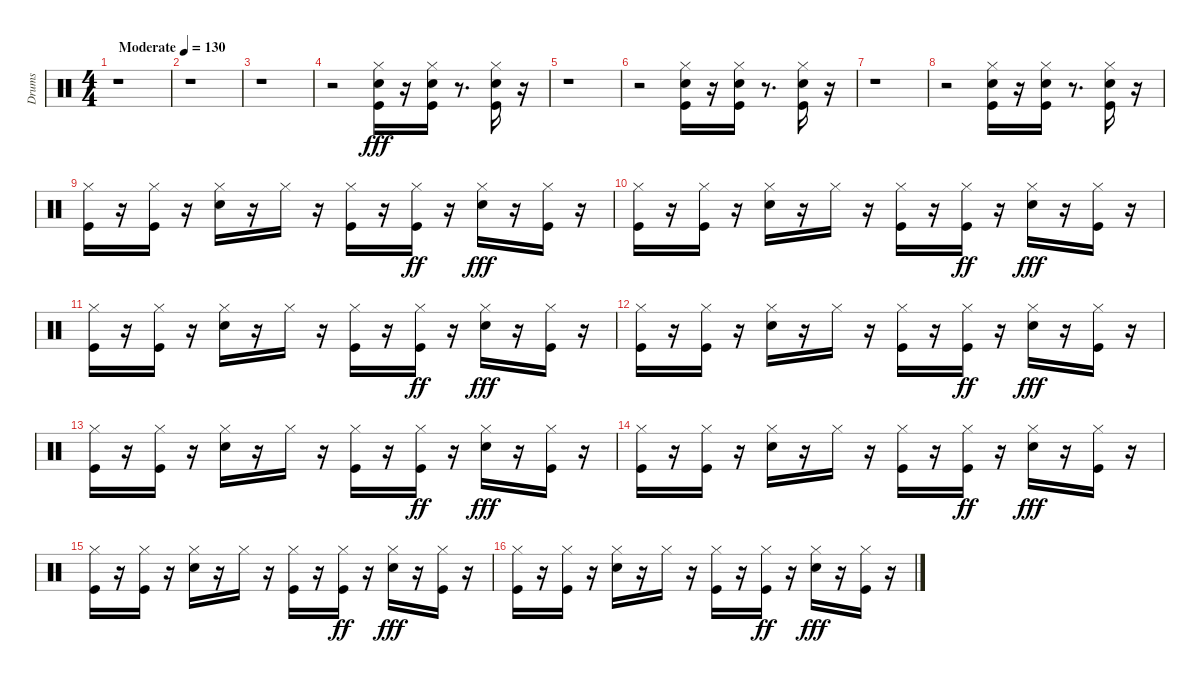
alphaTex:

\track ("Drums" "Drums") {instrument percussion}
\staff {score}
\articulation defaults
\ts (4 4)
\tempo (130 "Moderate")
\clef neutral
\ks c
r.1{dy fff} |
r.1 |
r.1 |
r.2 ("Hi-Hat (closed)" "Kick (hit)" "Electric Snare (hit)").16 r.16 ("Hi-Hat (closed)" "Kick (hit)" "Electric Snare (hit)").16 r.8{d} ("Hi-Hat (closed)" "Kick (hit)" "Electric Snare (hit)").16 r.16 |
r.1 |
r.2 ("Hi-Hat (closed)" "Kick (hit)" "Electric Snare (hit)").16 r.16 ("Hi-Hat (closed)" "Kick (hit)" "Electric Snare (hit)").16 r.8{d} ("Hi-Hat (closed)" "Kick (hit)" "Electric Snare (hit)").16 r.16 |
r.1 |
r.2 ("Hi-Hat (closed)" "Kick (hit)" "Electric Snare (hit)").16 r.16 ("Hi-Hat (closed)" "Kick (hit)" "Electric Snare (hit)").16 r.8{d} ("Hi-Hat (closed)" "Kick (hit)" "Electric Snare (hit)").16 r.16 |
("Hi-Hat (closed)" "Kick (hit)").16 r.16 ("Hi-Hat (closed)" "Kick (hit)").16 r.16 ("Hi-Hat (closed)" "Electric Snare (hit)").16 r.16 "Hi-Hat (closed)".16 r.16 ("Hi-Hat (closed)" "Kick (hit)").16 r.16 ("Hi-Hat (closed)" "Kick (hit)").16{dy ff} r.16 ("Hi-Hat (closed)" "Electric Snare (hit)").16{dy fff} r.16 ("Hi-Hat (closed)" "Kick (hit)").16 r.16 |
("Hi-Hat (closed)" "Kick (hit)").16 r.16 ("Hi-Hat (closed)" "Kick (hit)").16 r.16 ("Hi-Hat (closed)" "Electric Snare (hit)").16 r.16 "Hi-Hat (closed)".16 r.16 ("Hi-Hat (closed)" "Kick (hit)").16 r.16 ("Hi-Hat (closed)" "Kick (hit)").16{dy ff} r.16 ("Hi-Hat (closed)" "Electric Snare (hit)").16{dy fff} r.16 ("Hi-Hat (closed)" "Kick (hit)").16 r.16 |
("Hi-Hat (closed)" "Kick (hit)").16 r.16 ("Hi-Hat (closed)" "Kick (hit)").16 r.16 ("Hi-Hat (closed)" "Electric Snare (hit)").16 r.16 "Hi-Hat (closed)".16 r.16 ("Hi-Hat (closed)" "Kick (hit)").16 r.16 ("Hi-Hat (closed)" "Kick (hit)").16{dy ff} r.16 ("Hi-Hat (closed)" "Electric Snare (hit)").16{dy fff} r.16 ("Hi-Hat (closed)" "Kick (hit)").16 r.16 |
("Hi-Hat (closed)" "Kick (hit)").16 r.16 ("Hi-Hat (closed)" "Kick (hit)").16 r.16 ("Hi-Hat (closed)" "Electric Snare (hit)").16 r.16 "Hi-Hat (closed)".16 r.16 ("Hi-Hat (closed)" "Kick (hit)").16 r.16 ("Hi-Hat (closed)" "Kick (hit)").16{dy ff} r.16 ("Hi-Hat (closed)" "Electric Snare (hit)").16{dy fff} r.16 ("Hi-Hat (closed)" "Kick (hit)").16 r.16 |
("Hi-Hat (closed)" "Kick (hit)").16 r.16 ("Hi-Hat (closed)" "Kick (hit)").16 r.16 ("Hi-Hat (closed)" "Electric Snare (hit)").16 r.16 "Hi-Hat (closed)".16 r.16 ("Hi-Hat (closed)" "Kick (hit)").16 r.16 ("Hi-Hat (closed)" "Kick (hit)").16{dy ff} r.16 ("Hi-Hat (closed)" "Electric Snare (hit)").16{dy fff} r.16 ("Hi-Hat (closed)" "Kick (hit)").16 r.16 |
("Hi-Hat (closed)" "Kick (hit)").16 r.16 ("Hi-Hat (closed)" "Kick (hit)").16 r.16 ("Hi-Hat (closed)" "Electric Snare (hit)").16 r.16 "Hi-Hat (closed)".16 r.16 ("Hi-Hat (closed)" "Kick (hit)").16 r.16 ("Hi-Hat (closed)" "Kick (hit)").16{dy ff} r.16 ("Hi-Hat (closed)" "Electric Snare (hit)").16{dy fff} r.16 ("Hi-Hat (closed)" "Kick (hit)").16 r.16 |
("Hi-Hat (closed)" "Kick (hit)").16 r.16 ("Hi-Hat (closed)" "Kick (hit)").16 r.16 ("Hi-Hat (closed)" "Electric Snare (hit)").16 r.16 "Hi-Hat (closed)".16 r.16 ("Hi-Hat (closed)" "Kick (hit)").16 r.16 ("Hi-Hat (closed)" "Kick (hit)").16{dy ff} r.16 ("Hi-Hat (closed)" "Electric Snare (hit)").16{dy fff} r.16 ("Hi-Hat (closed)" "Kick (hit)").16 r.16 |
("Hi-Hat (closed)" "Kick (hit)").16 r.16 ("Hi-Hat (closed)" "Kick (hit)").16 r.16 ("Hi-Hat (closed)" "Electric Snare (hit)").16 r.16 "Hi-Hat (closed)".16 r.16 ("Hi-Hat (closed)" "Kick (hit)").16 r.16 ("Hi-Hat (closed)" "Kick (hit)").16{dy ff} r.16 ("Hi-Hat (closed)" "Electric Snare (hit)").16{dy fff} r.16 ("Hi-Hat (closed)" "Kick (hit)").16 r.16
